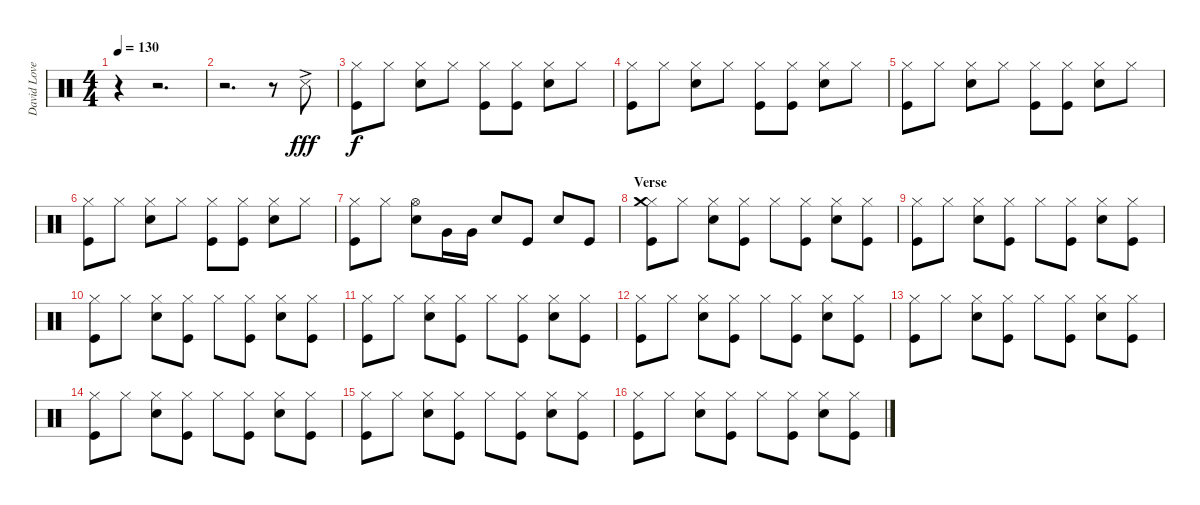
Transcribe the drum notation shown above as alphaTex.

\track ("David Lovering" "David Love") {instrument percussion}
\staff {score}
\articulation defaults
\ts (4 4)
\tempo 130
\clef neutral
\ks c
r.4{dy fff} r.2{d} |
r.2{d} r.8 "Snare (side stick) 3"{ac}.8 |
("Hi-Hat (closed)" "Kick (hit)").8{dy f} "Hi-Hat (closed)".8 ("Hi-Hat (closed)" "Snare (hit) 2").8 "Hi-Hat (closed)".8 ("Hi-Hat (closed)" "Kick (hit)").8 ("Hi-Hat (closed)" "Kick (hit)").8 ("Hi-Hat (closed)" "Snare (hit) 2").8 "Hi-Hat (closed)".8 |
("Hi-Hat (closed)" "Kick (hit)").8 "Hi-Hat (closed)".8 ("Hi-Hat (closed)" "Snare (hit) 2").8 "Hi-Hat (closed)".8 ("Hi-Hat (closed)" "Kick (hit)").8 ("Hi-Hat (closed)" "Kick (hit)").8 ("Hi-Hat (closed)" "Snare (hit) 2").8 "Hi-Hat (closed)".8 |
("Hi-Hat (closed)" "Kick (hit)").8 "Hi-Hat (closed)".8 ("Hi-Hat (closed)" "Snare (hit) 2").8 "Hi-Hat (closed)".8 ("Hi-Hat (closed)" "Kick (hit)").8 ("Hi-Hat (closed)" "Kick (hit)").8 ("Hi-Hat (closed)" "Snare (hit) 2").8 "Hi-Hat (closed)".8 |
("Hi-Hat (closed)" "Kick (hit)").8 "Hi-Hat (closed)".8 ("Hi-Hat (closed)" "Snare (hit) 2").8 "Hi-Hat (closed)".8 ("Hi-Hat (closed)" "Kick (hit)").8 ("Hi-Hat (closed)" "Kick (hit)").8 ("Hi-Hat (closed)" "Snare (hit) 2").8 "Hi-Hat (closed)".8 |
("Hi-Hat (closed)" "Kick (hit)").8 "Hi-Hat (closed)".8 ("Hi-Hat (open)" "Snare (hit) 2").8 "Very Low Tom (hit)".16 "Very Low Tom (hit)".16 "Snare (hit) 2".8 "Kick (hit)".8 "Snare (hit) 2".8 "Kick (hit)".8 |
\section ("" "Verse")
("Hi-Hat (closed)" "Crash medium (hit)" "Kick (hit)").8 "Hi-Hat (closed)".8 ("Hi-Hat (closed)" "Snare (hit) 2").8 ("Hi-Hat (closed)" "Kick (hit)").8 "Hi-Hat (closed)".8 ("Hi-Hat (closed)" "Kick (hit)").8 ("Hi-Hat (closed)" "Snare (hit) 2").8 ("Hi-Hat (closed)" "Kick (hit)").8 |
("Hi-Hat (closed)" "Kick (hit)").8 "Hi-Hat (closed)".8 ("Hi-Hat (closed)" "Snare (hit) 2").8 ("Hi-Hat (closed)" "Kick (hit)").8 "Hi-Hat (closed)".8 ("Hi-Hat (closed)" "Kick (hit)").8 ("Hi-Hat (closed)" "Snare (hit) 2").8 ("Hi-Hat (closed)" "Kick (hit)").8 |
("Hi-Hat (closed)" "Kick (hit)").8 "Hi-Hat (closed)".8 ("Hi-Hat (closed)" "Snare (hit) 2").8 ("Hi-Hat (closed)" "Kick (hit)").8 "Hi-Hat (closed)".8 ("Hi-Hat (closed)" "Kick (hit)").8 ("Hi-Hat (closed)" "Snare (hit) 2").8 ("Hi-Hat (closed)" "Kick (hit)").8 |
("Hi-Hat (closed)" "Kick (hit)").8 "Hi-Hat (closed)".8 ("Hi-Hat (closed)" "Snare (hit) 2").8 ("Hi-Hat (closed)" "Kick (hit)").8 "Hi-Hat (closed)".8 ("Hi-Hat (closed)" "Kick (hit)").8 ("Hi-Hat (closed)" "Snare (hit) 2").8 ("Hi-Hat (closed)" "Kick (hit)").8 |
("Hi-Hat (closed)" "Kick (hit)").8 "Hi-Hat (closed)".8 ("Hi-Hat (closed)" "Snare (hit) 2").8 ("Hi-Hat (closed)" "Kick (hit)").8 "Hi-Hat (closed)".8 ("Hi-Hat (closed)" "Kick (hit)").8 ("Hi-Hat (closed)" "Snare (hit) 2").8 ("Hi-Hat (closed)" "Kick (hit)").8 |
("Hi-Hat (closed)" "Kick (hit)").8 "Hi-Hat (closed)".8 ("Hi-Hat (closed)" "Snare (hit) 2").8 ("Hi-Hat (closed)" "Kick (hit)").8 "Hi-Hat (closed)".8 ("Hi-Hat (closed)" "Kick (hit)").8 ("Hi-Hat (closed)" "Snare (hit) 2").8 ("Hi-Hat (closed)" "Kick (hit)").8 |
("Hi-Hat (closed)" "Kick (hit)").8 "Hi-Hat (closed)".8 ("Hi-Hat (closed)" "Snare (hit) 2").8 ("Hi-Hat (closed)" "Kick (hit)").8 "Hi-Hat (closed)".8 ("Hi-Hat (closed)" "Kick (hit)").8 ("Hi-Hat (closed)" "Snare (hit) 2").8 ("Hi-Hat (closed)" "Kick (hit)").8 |
("Hi-Hat (closed)" "Kick (hit)").8 "Hi-Hat (closed)".8 ("Hi-Hat (closed)" "Snare (hit) 2").8 ("Hi-Hat (closed)" "Kick (hit)").8 "Hi-Hat (closed)".8 ("Hi-Hat (closed)" "Kick (hit)").8 ("Hi-Hat (closed)" "Snare (hit) 2").8 ("Hi-Hat (closed)" "Kick (hit)").8 |
("Hi-Hat (closed)" "Kick (hit)").8 "Hi-Hat (closed)".8 ("Hi-Hat (closed)" "Snare (hit) 2").8 ("Hi-Hat (closed)" "Kick (hit)").8 "Hi-Hat (closed)".8 ("Hi-Hat (closed)" "Kick (hit)").8 ("Hi-Hat (closed)" "Snare (hit) 2").8 ("Hi-Hat (closed)" "Kick (hit)").8
